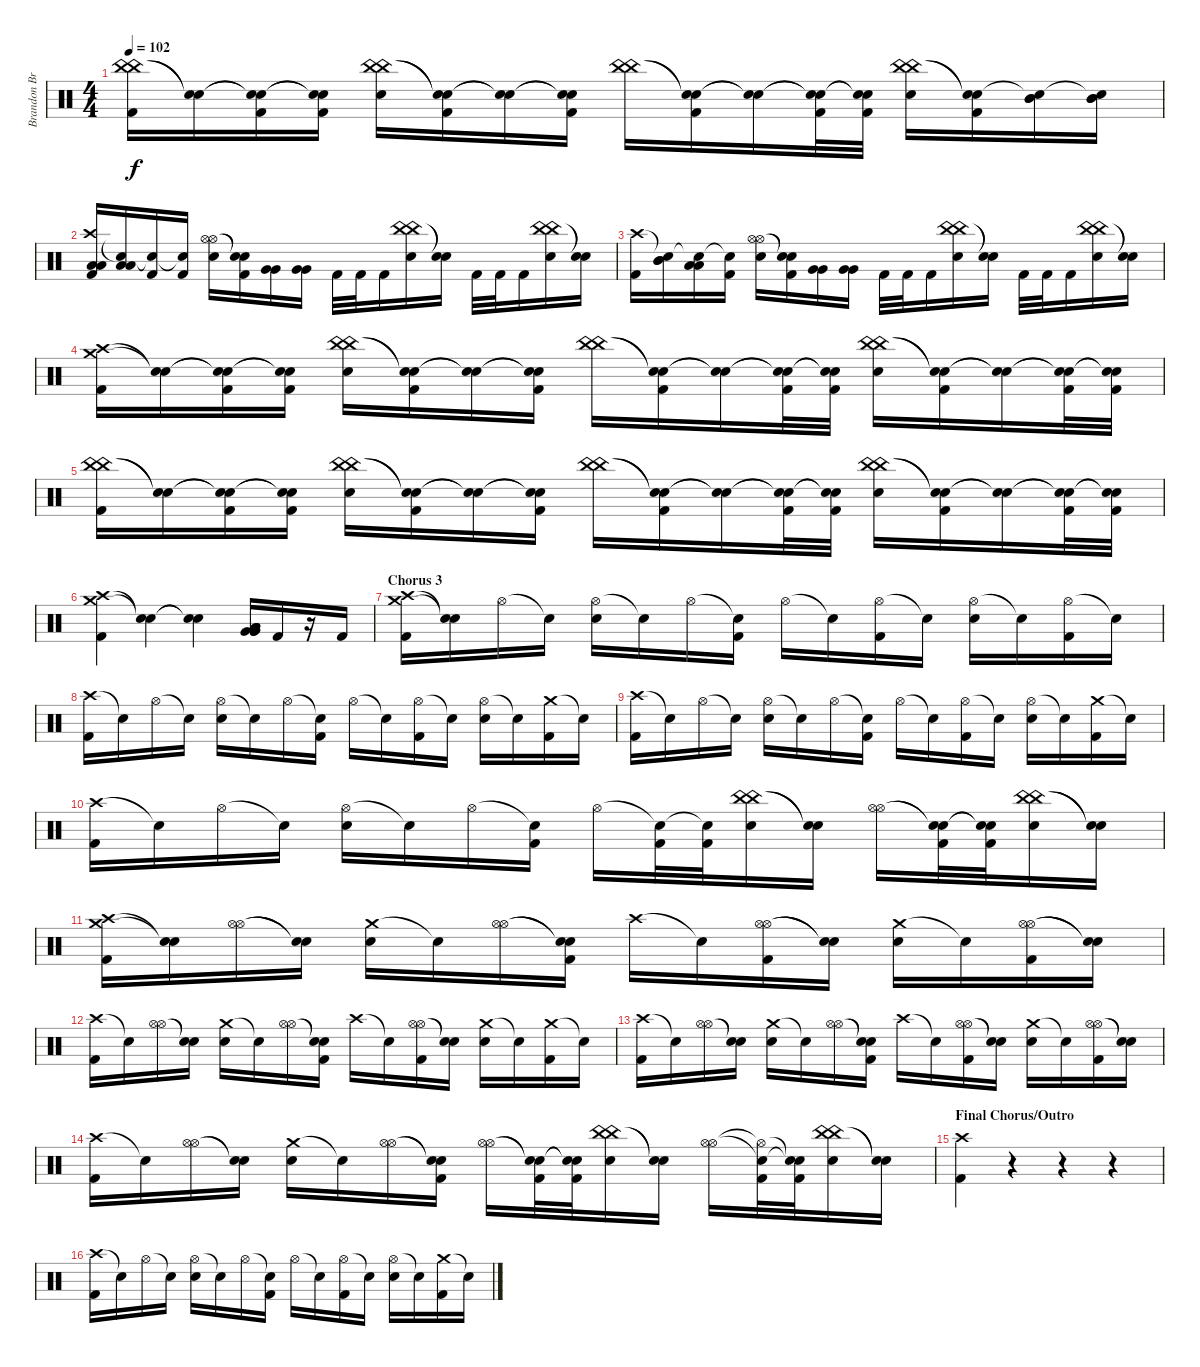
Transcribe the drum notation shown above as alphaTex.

\track ("Brandon Brown (Drums)" "Brandon Br") {instrument percussion}
\staff {score}
\articulation defaults
\ts (4 4)
\tempo 102
\clef neutral
\ks c
("China (hit)" "China (hit)" "Kick (hit) 2").16{dy f} ("Snare (hit)"{t} "Snare (hit)"{t}).16 ("Snare (hit)"{t} "Snare (hit)"{t} "Kick (hit) 2").16 ("Snare (hit)"{t} "Snare (hit)"{t} "Kick (hit) 2").16 ("China (hit)" "China (hit)" "Electric Snare (hit)").16 ("Snare (hit)"{t} "Snare (hit)"{t} "Kick (hit) 2").16 ("Snare (hit)"{t} "Snare (hit)"{t}).16 ("Snare (hit)"{t} "Snare (hit)"{t} "Kick (hit) 2").16 ("China (hit)" "China (hit)").16 ("Snare (hit)"{t} "Snare (hit)"{t} "Kick (hit) 2").16 ("Snare (hit)"{t} "Snare (hit)"{t}).16 ("Snare (hit)"{t} "Snare (hit)"{t} "Kick (hit) 2").32 ("Snare (hit)"{t} "Snare (hit)"{t} "Kick (hit) 2").32 ("China (hit)" "China (hit)" "Electric Snare (hit)").16 ("Snare (hit)"{t} "Snare (hit)"{t} "Kick (hit) 2").16 ("Snare (hit)"{t} "Mid Tom (hit)" "Mid Tom (hit)").16 ("Snare (hit)"{t} "Mid Tom (hit)" "Mid Tom (hit)").16 |
("Crash high (hit)" "Low Tom (hit)" "Low Tom (hit)" "Kick (hit) 2").16 ("Snare (hit)"{t} "Low Tom (hit)" "Low Tom (hit)").16 ("Snare (hit)"{t} "Kick (hit) 2").16 ("Snare (hit)"{t} "Kick (hit) 2").16 ("Hi-Hat (open)" "Hi-Hat (open)" "Electric Snare (hit)").16 ("Snare (hit)"{t} "Snare (hit)"{t} "Kick (hit) 2").16 ("Very Low Tom (hit)" "Very Low Tom (hit)").16 ("Very Low Tom (hit)" "Very Low Tom (hit)").16 "Kick (hit) 2".32 "Kick (hit) 2".32 "Kick (hit) 2".16 ("China (hit)" "China (hit)" "Electric Snare (hit)").16 ("Snare (hit)"{t} "Snare (hit)"{t}).16 "Kick (hit) 2".32 "Kick (hit) 2".32 "Kick (hit) 2".16 ("China (hit)" "China (hit)" "Electric Snare (hit)").16 ("Snare (hit)"{t} "Snare (hit)"{t}).16 |
("Crash high (hit)" "Kick (hit) 2").16 ("Snare (hit)"{t} "Mid Tom (hit)" "Mid Tom (hit)").16 ("Snare (hit)"{t} "Low Tom (hit)" "Low Tom (hit)").16 ("Snare (hit)"{t} "Kick (hit) 2").16 ("Hi-Hat (open)" "Hi-Hat (open)" "Electric Snare (hit)").16 ("Snare (hit)"{t} "Snare (hit)"{t} "Kick (hit) 2").16 ("Very Low Tom (hit)" "Very Low Tom (hit)").16 ("Very Low Tom (hit)" "Very Low Tom (hit)").16 "Kick (hit) 2".32 "Kick (hit) 2".32 "Kick (hit) 2".16 ("China (hit)" "China (hit)" "Electric Snare (hit)").16 ("Snare (hit)"{t} "Snare (hit)"{t}).16 "Kick (hit) 2".32 "Kick (hit) 2".32 "Kick (hit) 2".16 ("China (hit)" "China (hit)" "Electric Snare (hit)").16 ("Snare (hit)"{t} "Snare (hit)"{t}).16 |
("Crash high (hit)" "Crash medium (hit)" "Kick (hit) 2").16 ("Snare (hit)"{t} "Snare (hit)"{t}).16 ("Snare (hit)"{t} "Snare (hit)"{t} "Kick (hit) 2").16 ("Snare (hit)"{t} "Snare (hit)"{t} "Kick (hit) 2").16 ("China (hit)" "China (hit)" "Electric Snare (hit)").16 ("Snare (hit)"{t} "Snare (hit)"{t} "Kick (hit) 2").16 ("Snare (hit)"{t} "Snare (hit)"{t}).16 ("Snare (hit)"{t} "Snare (hit)"{t} "Kick (hit) 2").16 ("China (hit)" "China (hit)").16 ("Snare (hit)"{t} "Snare (hit)"{t} "Kick (hit) 2").16 ("Snare (hit)"{t} "Snare (hit)"{t}).16 ("Snare (hit)"{t} "Snare (hit)"{t} "Kick (hit) 2").32 ("Snare (hit)"{t} "Snare (hit)"{t} "Kick (hit) 2").32 ("China (hit)" "China (hit)" "Electric Snare (hit)").16 ("Snare (hit)"{t} "Snare (hit)"{t} "Kick (hit) 2").16 ("Snare (hit)"{t} "Snare (hit)"{t}).16 ("Snare (hit)"{t} "Snare (hit)"{t} "Kick (hit) 2").32 ("Snare (hit)"{t} "Snare (hit)"{t} "Kick (hit) 2").32 |
("China (hit)" "China (hit)" "Kick (hit) 2").16 ("Snare (hit)"{t} "Snare (hit)"{t}).16 ("Snare (hit)"{t} "Snare (hit)"{t} "Kick (hit) 2").16 ("Snare (hit)"{t} "Snare (hit)"{t} "Kick (hit) 2").16 ("China (hit)" "China (hit)" "Electric Snare (hit)").16 ("Snare (hit)"{t} "Snare (hit)"{t} "Kick (hit) 2").16 ("Snare (hit)"{t} "Snare (hit)"{t}).16 ("Snare (hit)"{t} "Snare (hit)"{t} "Kick (hit) 2").16 ("China (hit)" "China (hit)").16 ("Snare (hit)"{t} "Snare (hit)"{t} "Kick (hit) 2").16 ("Snare (hit)"{t} "Snare (hit)"{t}).16 ("Snare (hit)"{t} "Snare (hit)"{t} "Kick (hit) 2").32 ("Snare (hit)"{t} "Snare (hit)"{t} "Kick (hit) 2").32 ("China (hit)" "China (hit)" "Electric Snare (hit)").16 ("Snare (hit)"{t} "Snare (hit)"{t} "Kick (hit) 2").16 ("Snare (hit)"{t} "Snare (hit)"{t}).16 ("Snare (hit)"{t} "Snare (hit)"{t} "Kick (hit) 2").32 ("Snare (hit)"{t} "Snare (hit)"{t} "Kick (hit) 2").32 |
("Crash high (hit)" "Crash medium (hit)" "Kick (hit) 2").4 ("Snare (hit)"{t} "Snare (hit)"{t}).4 ("Snare (hit)"{t} "Snare (hit)"{t}).4 ("Low Tom (hit)" "Low Tom (hit)" "Low Tom (hit)" "Very Low Tom (hit)" "Very Low Tom (hit)" "Very Low Tom (hit)").16 "Kick (hit) 2".16 r.16 "Kick (hit) 2".16 |
\section ("" "Chorus 3")
("Crash high (hit)" "Crash medium (hit)" "Kick (hit) 2").16 ("Snare (hit)"{t} "Snare (hit)"{t}).16 "Hi-Hat (open)".16 "Snare (hit)"{t}.16 ("Hi-Hat (open)" "Electric Snare (hit)").16 "Snare (hit)"{t}.16 "Hi-Hat (open)".16 ("Snare (hit)"{t} "Kick (hit) 2").16 "Hi-Hat (open)".16 "Snare (hit)"{t}.16 ("Hi-Hat (open)" "Kick (hit) 2").16 "Snare (hit)"{t}.16 ("Hi-Hat (open)" "Electric Snare (hit)").16 "Snare (hit)"{t}.16 ("Hi-Hat (open)" "Kick (hit) 2").16 "Snare (hit)"{t}.16 |
("Crash high (hit)" "Kick (hit) 2").16 "Snare (hit)"{t}.16 "Hi-Hat (open)".16 "Snare (hit)"{t}.16 ("Hi-Hat (open)" "Electric Snare (hit)").16 "Snare (hit)"{t}.16 "Hi-Hat (open)".16 ("Snare (hit)"{t} "Kick (hit) 2").16 "Hi-Hat (open)".16 "Snare (hit)"{t}.16 ("Hi-Hat (open)" "Kick (hit) 2").16 "Snare (hit)"{t}.16 ("Hi-Hat (open)" "Electric Snare (hit)").16 "Snare (hit)"{t}.16 ("Crash medium (hit)" "Kick (hit) 2").16 "Snare (hit)"{t}.16 |
("Crash high (hit)" "Kick (hit) 2").16 "Snare (hit)"{t}.16 "Hi-Hat (open)".16 "Snare (hit)"{t}.16 ("Hi-Hat (open)" "Electric Snare (hit)").16 "Snare (hit)"{t}.16 "Hi-Hat (open)".16 ("Snare (hit)"{t} "Kick (hit) 2").16 "Hi-Hat (open)".16 "Snare (hit)"{t}.16 ("Hi-Hat (open)" "Kick (hit) 2").16 "Snare (hit)"{t}.16 ("Hi-Hat (open)" "Electric Snare (hit)").16 "Snare (hit)"{t}.16 ("Crash medium (hit)" "Kick (hit) 2").16 "Snare (hit)"{t}.16 |
("Crash high (hit)" "Kick (hit) 2").16 "Snare (hit)"{t}.16 "Hi-Hat (open)".16 "Snare (hit)"{t}.16 ("Hi-Hat (open)" "Electric Snare (hit)").16 "Snare (hit)"{t}.16 "Hi-Hat (open)".16 ("Snare (hit)"{t} "Kick (hit) 2").16 "Hi-Hat (open)".16 ("Snare (hit)"{t} "Kick (hit) 2").32 ("Snare (hit)"{t} "Kick (hit) 2").32 ("China (hit)" "China (hit)" "Electric Snare (hit)").16 ("Snare (hit)"{t} "Snare (hit)"{t}).16 ("Hi-Hat (open)" "Hi-Hat (open)").16 ("Snare (hit)"{t} "Snare (hit)"{t} "Kick (hit) 2").32 ("Snare (hit)"{t} "Snare (hit)"{t} "Kick (hit) 2").32 ("China (hit)" "China (hit)" "Electric Snare (hit)").16 ("Snare (hit)"{t} "Snare (hit)"{t}).16 |
("Crash high (hit)" "Crash medium (hit)" "Kick (hit) 2").16 ("Snare (hit)"{t} "Snare (hit)"{t}).16 ("Hi-Hat (open)" "Hi-Hat (open)").16 ("Snare (hit)"{t} "Snare (hit)"{t}).16 ("Crash medium (hit)" "Electric Snare (hit)").16 "Snare (hit)"{t}.16 ("Hi-Hat (open)" "Hi-Hat (open)").16 ("Snare (hit)"{t} "Snare (hit)"{t} "Kick (hit) 2").16 "Crash high (hit)".16 "Snare (hit)"{t}.16 ("Hi-Hat (open)" "Hi-Hat (open)" "Kick (hit) 2").16 ("Snare (hit)"{t} "Snare (hit)"{t}).16 ("Crash medium (hit)" "Electric Snare (hit)").16 "Snare (hit)"{t}.16 ("Hi-Hat (open)" "Hi-Hat (open)" "Kick (hit) 2").16 ("Snare (hit)"{t} "Snare (hit)"{t}).16 |
("Crash high (hit)" "Kick (hit) 2").16 "Snare (hit)"{t}.16 ("Hi-Hat (open)" "Hi-Hat (open)").16 ("Snare (hit)"{t} "Snare (hit)"{t}).16 ("Crash medium (hit)" "Electric Snare (hit)").16 "Snare (hit)"{t}.16 ("Hi-Hat (open)" "Hi-Hat (open)").16 ("Snare (hit)"{t} "Snare (hit)"{t} "Kick (hit) 2").16 "Crash high (hit)".16 "Snare (hit)"{t}.16 ("Hi-Hat (open)" "Hi-Hat (open)" "Kick (hit) 2").16 ("Snare (hit)"{t} "Snare (hit)"{t}).16 ("Crash medium (hit)" "Electric Snare (hit)").16 "Snare (hit)"{t}.16 ("Crash medium (hit)" "Kick (hit) 2").16 "Snare (hit)"{t}.16 |
("Crash high (hit)" "Kick (hit) 2").16 "Snare (hit)"{t}.16 ("Hi-Hat (open)" "Hi-Hat (open)").16 ("Snare (hit)"{t} "Snare (hit)"{t}).16 ("Crash medium (hit)" "Electric Snare (hit)").16 "Snare (hit)"{t}.16 ("Hi-Hat (open)" "Hi-Hat (open)").16 ("Snare (hit)"{t} "Snare (hit)"{t} "Kick (hit) 2").16 "Crash high (hit)".16 "Snare (hit)"{t}.16 ("Hi-Hat (open)" "Hi-Hat (open)" "Kick (hit) 2").16 ("Snare (hit)"{t} "Snare (hit)"{t}).16 ("Crash medium (hit)" "Electric Snare (hit)").16 "Snare (hit)"{t}.16 ("Hi-Hat (open)" "Hi-Hat (open)" "Kick (hit) 2").16 ("Snare (hit)"{t} "Snare (hit)"{t}).16 |
("Crash high (hit)" "Kick (hit) 2").16 "Snare (hit)"{t}.16 ("Hi-Hat (open)" "Hi-Hat (open)").16 ("Snare (hit)"{t} "Snare (hit)"{t}).16 ("Crash medium (hit)" "Electric Snare (hit)").16 "Snare (hit)"{t}.16 ("Hi-Hat (open)" "Hi-Hat (open)").16 ("Snare (hit)"{t} "Snare (hit)"{t} "Kick (hit) 2").16 ("Hi-Hat (open)" "Hi-Hat (open)").16 ("Snare (hit)"{t} "Snare (hit)"{t} "Kick (hit) 2").32 ("Snare (hit)"{t} "Snare (hit)"{t} "Kick (hit) 2").32 ("China (hit)" "China (hit)" "Electric Snare (hit)").16 ("Snare (hit)"{t} "Snare (hit)"{t}).16 ("Hi-Hat (open)" "Hi-Hat (open)").16 ("Snare (hit)"{t} "Hi-Hat (open)"{t} "Kick (hit) 2").32 ("Snare (hit)"{t} "Snare (hit)"{t} "Kick (hit) 2").32 ("China (hit)" "China (hit)" "Electric Snare (hit)").16 ("Snare (hit)"{t} "Snare (hit)"{t}).16 |
\section ("" "Final Chorus/Outro")
("Crash high (hit)" "Kick (hit) 2").4 r.4 r.4 r.4 |
("Crash high (hit)" "Kick (hit) 2").16 "Snare (hit)"{t}.16 "Hi-Hat (open)".16 "Snare (hit)"{t}.16 ("Hi-Hat (open)" "Electric Snare (hit)").16 "Snare (hit)"{t}.16 "Hi-Hat (open)".16 ("Snare (hit)"{t} "Kick (hit) 2").16 "Hi-Hat (open)".16 "Snare (hit)"{t}.16 ("Hi-Hat (open)" "Kick (hit) 2").16 "Snare (hit)"{t}.16 ("Hi-Hat (open)" "Electric Snare (hit)").16 "Snare (hit)"{t}.16 ("Crash medium (hit)" "Kick (hit) 2").16 "Snare (hit)"{t}.16
